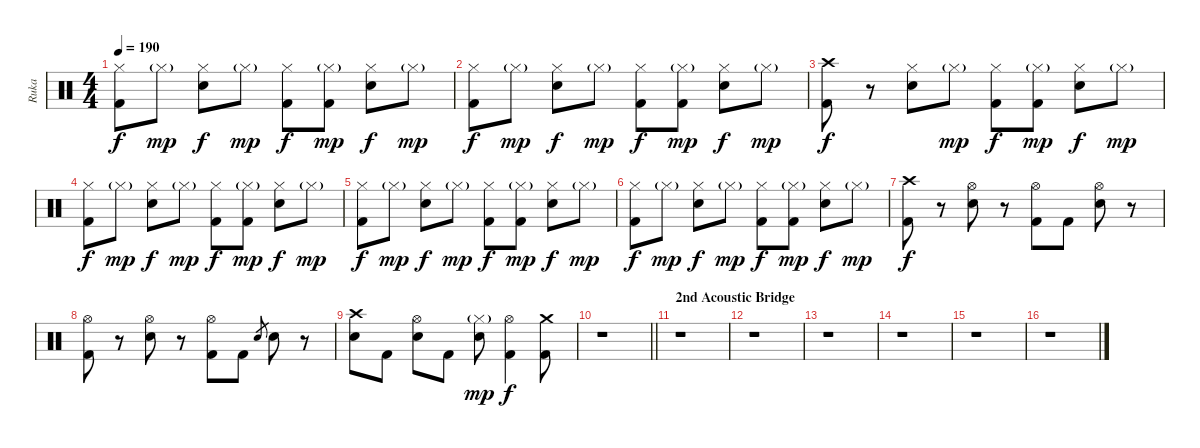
\track ("Ruka " "Ruka ") {instrument percussion}
\staff {score}
\articulation defaults
\ts (4 4)
\tempo 190
\clef neutral
\ks c
("Hi-Hat (closed)" "Kick (hit) 2").8{dy f} "Hi-Hat (closed)"{g}.8{dy mp} ("Hi-Hat (closed)" "Electric Snare (hit)").8{dy f} "Hi-Hat (closed)"{g}.8{dy mp} ("Hi-Hat (closed)" "Kick (hit) 2").8{dy f} ("Hi-Hat (closed)"{g} "Kick (hit) 2").8{dy mp} ("Hi-Hat (closed)" "Electric Snare (hit)").8{dy f} "Hi-Hat (closed)"{g}.8{dy mp} |
("Hi-Hat (closed)" "Kick (hit) 2").8{dy f} "Hi-Hat (closed)"{g}.8{dy mp} ("Hi-Hat (closed)" "Electric Snare (hit)").8{dy f} "Hi-Hat (closed)"{g}.8{dy mp} ("Hi-Hat (closed)" "Kick (hit) 2").8{dy f} ("Hi-Hat (closed)"{g} "Kick (hit) 2").8{dy mp} ("Hi-Hat (closed)" "Electric Snare (hit)").8{dy f} "Hi-Hat (closed)"{g}.8{dy mp} |
("Crash high (hit)" "Kick (hit) 2").8{dy f} r.8 ("Hi-Hat (closed)" "Electric Snare (hit)").8 "Hi-Hat (closed)"{g}.8{dy mp} ("Hi-Hat (closed)" "Kick (hit) 2").8{dy f} ("Hi-Hat (closed)"{g} "Kick (hit) 2").8{dy mp} ("Hi-Hat (closed)" "Electric Snare (hit)").8{dy f} "Hi-Hat (closed)"{g}.8{dy mp} |
("Hi-Hat (closed)" "Kick (hit) 2").8{dy f} "Hi-Hat (closed)"{g}.8{dy mp} ("Hi-Hat (closed)" "Electric Snare (hit)").8{dy f} "Hi-Hat (closed)"{g}.8{dy mp} ("Hi-Hat (closed)" "Kick (hit) 2").8{dy f} ("Hi-Hat (closed)"{g} "Kick (hit) 2").8{dy mp} ("Hi-Hat (closed)" "Electric Snare (hit)").8{dy f} "Hi-Hat (closed)"{g}.8{dy mp} |
("Hi-Hat (closed)" "Kick (hit) 2").8{dy f} "Hi-Hat (closed)"{g}.8{dy mp} ("Hi-Hat (closed)" "Electric Snare (hit)").8{dy f} "Hi-Hat (closed)"{g}.8{dy mp} ("Hi-Hat (closed)" "Kick (hit) 2").8{dy f} ("Hi-Hat (closed)"{g} "Kick (hit) 2").8{dy mp} ("Hi-Hat (closed)" "Electric Snare (hit)").8{dy f} "Hi-Hat (closed)"{g}.8{dy mp} |
("Hi-Hat (closed)" "Kick (hit) 2").8{dy f} "Hi-Hat (closed)"{g}.8{dy mp} ("Hi-Hat (closed)" "Electric Snare (hit)").8{dy f} "Hi-Hat (closed)"{g}.8{dy mp} ("Hi-Hat (closed)" "Kick (hit) 2").8{dy f} ("Hi-Hat (closed)"{g} "Kick (hit) 2").8{dy mp} ("Hi-Hat (closed)" "Electric Snare (hit)").8{dy f} "Hi-Hat (closed)"{g}.8{dy mp} |
("Crash high (hit)" "Kick (hit) 2").8{dy f} r.8 ("Hi-Hat (open)" "Electric Snare (hit)").8 r.8 ("Hi-Hat (open)" "Kick (hit) 2").8 "Kick (hit) 2".8 ("Hi-Hat (open)" "Electric Snare (hit)").8 r.8 |
("Hi-Hat (open)" "Kick (hit) 2").8 r.8 ("Hi-Hat (open)" "Electric Snare (hit)").8 r.8 ("Hi-Hat (open)" "Kick (hit) 2").8 "Kick (hit) 2".8 "Electric Snare (hit)".8{gr} "Electric Snare (hit)".8 r.8 |
("Crash high (hit)" "Electric Snare (hit)").8 "Kick (hit) 2".8 ("Hi-Hat (open)" "Electric Snare (hit)").8 "Kick (hit) 2".8 ("Hi-Hat (closed)"{g} "Electric Snare (hit)").8{dy mp} ("Hi-Hat (open)" "Kick (hit) 2").4{dy f} ("Crash medium (hit)" "Kick (hit) 2").8 |
\barLineRight lightlight
r.1 |
\section ("" "2nd Acoustic Bridge")
r.1 |
r.1 |
r.1 |
r.1 |
r.1 |
r.1
